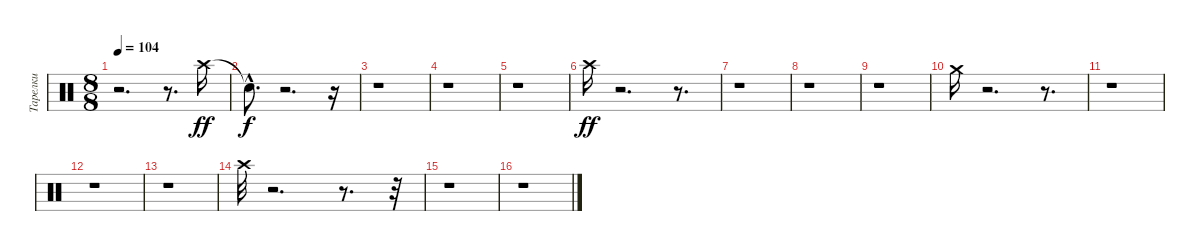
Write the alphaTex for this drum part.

\track ("Тарелки" "Тарелки") {instrument percussion}
\staff {score}
\articulation defaults
\ts (8 8)
\tempo 104
\clef neutral
\ks c
r.2{d dy f} r.8{d} "Crash high (hit)".16{dy ff} |
"Snare (hit)"{hac t}.8{d dy f} r.2{d} r.16 |
r.1 |
r.1 |
r.1 |
"Crash high (hit)".16{dy ff} r.2{d} r.8{d} |
r.1 |
r.1 |
r.1 |
"Crash medium (hit)".16 r.2{d} r.8{d} |
r.1 |
r.1 |
r.1 |
"Crash high (hit)".32 r.2{d} r.8{d} r.32 |
r.1 |
r.1
